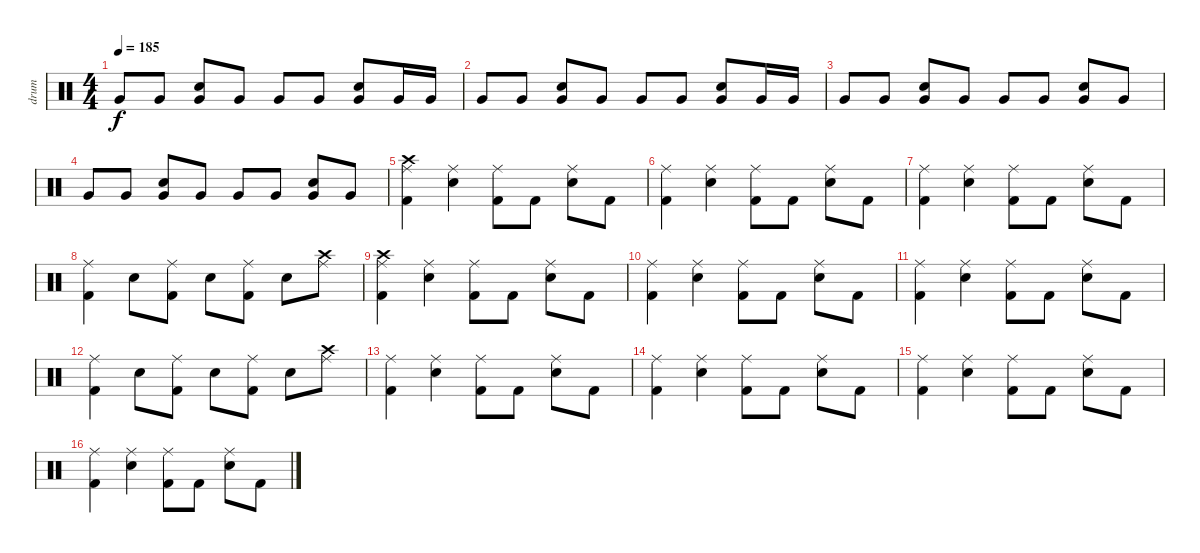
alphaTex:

\track ("drum" "drum") {instrument percussion}
\staff {score}
\articulation defaults
\ts (4 4)
\tempo 185
\clef neutral
\ks c "Very Low Tom (hit)".8{dy f} "Very Low Tom (hit)".8
("Snare (hit) 2" "Very Low Tom (hit)").8 "Very Low Tom (hit)".8 "Very Low Tom (hit)".8 "Very Low Tom (hit)".8 ("Snare (hit) 2" "Very Low Tom (hit)").8 "Very Low Tom (hit)".16 "Very Low Tom (hit)".16 |
"Very Low Tom (hit)".8 "Very Low Tom (hit)".8 ("Snare (hit) 2" "Very Low Tom (hit)").8 "Very Low Tom (hit)".8 "Very Low Tom (hit)".8 "Very Low Tom (hit)".8 ("Snare (hit) 2" "Very Low Tom (hit)").8 "Very Low Tom (hit)".16 "Very Low Tom (hit)".16 |
"Very Low Tom (hit)".8 "Very Low Tom (hit)".8 ("Snare (hit) 2" "Very Low Tom (hit)").8 "Very Low Tom (hit)".8 "Very Low Tom (hit)".8 "Very Low Tom (hit)".8 ("Snare (hit) 2" "Very Low Tom (hit)").8 "Very Low Tom (hit)".8 |
"Very Low Tom (hit)".8 "Very Low Tom (hit)".8 ("Snare (hit) 2" "Very Low Tom (hit)").8 "Very Low Tom (hit)".8 "Very Low Tom (hit)".8 "Very Low Tom (hit)".8 ("Snare (hit) 2" "Very Low Tom (hit)").8 "Very Low Tom (hit)".8 |
("Ride (middle)" "Crash high (hit)" "Kick (hit) 2").4 ("Ride (middle)" "Snare (hit) 2").4 ("Ride (middle)" "Kick (hit) 2").8 "Kick (hit) 2".8 ("Ride (middle)" "Snare (hit) 2").8 "Kick (hit) 2".8 |
("Ride (middle)" "Kick (hit) 2").4 ("Ride (middle)" "Snare (hit) 2").4 ("Ride (middle)" "Kick (hit) 2").8 "Kick (hit) 2".8 ("Ride (middle)" "Snare (hit) 2").8 "Kick (hit) 2".8 |
("Ride (middle)" "Kick (hit) 2").4 ("Ride (middle)" "Snare (hit) 2").4 ("Ride (middle)" "Kick (hit) 2").8 "Kick (hit) 2".8 ("Ride (middle)" "Snare (hit) 2").8 "Kick (hit) 2".8 |
("Ride (middle)" "Kick (hit) 2").4 "Snare (hit) 2".8 ("Ride (middle)" "Kick (hit) 2").8 "Snare (hit) 2".8 ("Ride (middle)" "Kick (hit) 2").8 "Snare (hit) 2".8 ("Ride (middle)" "Crash high (hit)").8 |
("Ride (middle)" "Crash high (hit)" "Kick (hit) 2").4 ("Ride (middle)" "Snare (hit) 2").4 ("Ride (middle)" "Kick (hit) 2").8 "Kick (hit) 2".8 ("Ride (middle)" "Snare (hit) 2").8 "Kick (hit) 2".8 |
("Ride (middle)" "Kick (hit) 2").4 ("Ride (middle)" "Snare (hit) 2").4 ("Ride (middle)" "Kick (hit) 2").8 "Kick (hit) 2".8 ("Ride (middle)" "Snare (hit) 2").8 "Kick (hit) 2".8 |
("Ride (middle)" "Kick (hit) 2").4 ("Ride (middle)" "Snare (hit) 2").4 ("Ride (middle)" "Kick (hit) 2").8 "Kick (hit) 2".8 ("Ride (middle)" "Snare (hit) 2").8 "Kick (hit) 2".8 |
("Ride (middle)" "Kick (hit) 2").4 "Snare (hit) 2".8 ("Ride (middle)" "Kick (hit) 2").8 "Snare (hit) 2".8 ("Ride (middle)" "Kick (hit) 2").8 "Snare (hit) 2".8 ("Ride (middle)" "Crash high (hit)").8 |
("Ride (middle)" "Kick (hit) 2").4 ("Ride (middle)" "Snare (hit) 2").4 ("Ride (middle)" "Kick (hit) 2").8 "Kick (hit) 2".8 ("Ride (middle)" "Snare (hit) 2").8 "Kick (hit) 2".8 |
("Ride (middle)" "Kick (hit) 2").4 ("Ride (middle)" "Snare (hit) 2").4 ("Ride (middle)" "Kick (hit) 2").8 "Kick (hit) 2".8 ("Ride (middle)" "Snare (hit) 2").8 "Kick (hit) 2".8 |
("Ride (middle)" "Kick (hit) 2").4 ("Ride (middle)" "Snare (hit) 2").4 ("Ride (middle)" "Kick (hit) 2").8 "Kick (hit) 2".8 ("Ride (middle)" "Snare (hit) 2").8 "Kick (hit) 2".8 |
("Ride (middle)" "Kick (hit) 2").4 ("Ride (middle)" "Snare (hit) 2").4 ("Ride (middle)" "Kick (hit) 2").8 "Kick (hit) 2".8 ("Ride (middle)" "Snare (hit) 2").8 "Kick (hit) 2".8
